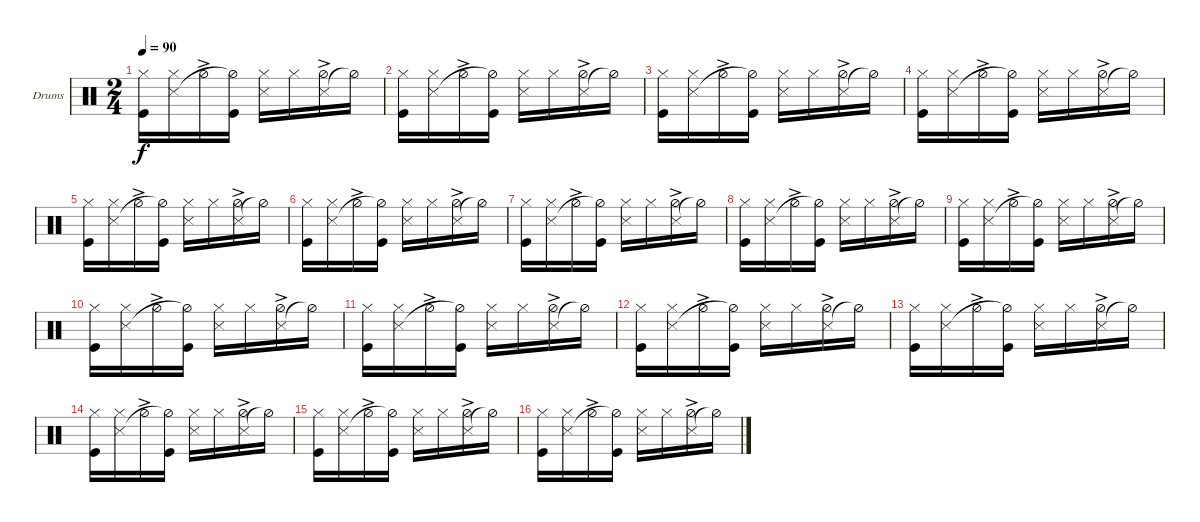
\defaultSystemsLayout 4
\bracketExtendMode groupsimilarinstruments
\firstSystemTrackNameOrientation horizontal
\otherSystemsTrackNameOrientation horizontal
\track ("Bateria" "Drums") {instrument percussion}
\staff {score}
\articulation defaults
\ts (2 4)
\tempo 90
\clef neutral
\scale
0.973518
\ks aminor
("Hi-Hat (closed)" "Kick (hit)").16{dy f} ("Hi-Hat (closed)" "Snare (side stick) 3").16 "Hi-Hat (half)"{ac}.16 ("Kick (hit)" "Hi-Hat (half)"{t}).16 ("Hi-Hat (closed)" "Snare (side stick) 3").16 "Hi-Hat (closed)".16 ("Snare (side stick) 3" "Hi-Hat (half)"{ac}).16 "Hi-Hat (half)"{t}.16 |
\scale
0.973518 ("Hi-Hat (closed)" "Kick (hit)").16 ("Hi-Hat (closed)" "Snare (side stick) 3").16 "Hi-Hat (half)"{ac}.16 ("Kick (hit)" "Hi-Hat (half)"{t}).16 ("Hi-Hat (closed)" "Snare (side stick) 3").16 "Hi-Hat (closed)".16 ("Snare (side stick) 3" "Hi-Hat (half)"{ac}).16 "Hi-Hat (half)"{t}.16 |
\scale
1.10593 ("Hi-Hat (closed)" "Kick (hit)").16 ("Hi-Hat (closed)" "Snare (side stick) 3").16 "Hi-Hat (half)"{ac}.16 ("Kick (hit)" "Hi-Hat (half)"{t}).16 ("Hi-Hat (closed)" "Snare (side stick) 3").16 "Hi-Hat (closed)".16 ("Snare (side stick) 3" "Hi-Hat (half)"{ac}).16 "Hi-Hat (half)"{t}.16 |
\scale
0.973518 ("Hi-Hat (closed)" "Kick (hit)").16 ("Hi-Hat (closed)" "Snare (side stick) 3").16 "Hi-Hat (half)"{ac}.16 ("Kick (hit)" "Hi-Hat (half)"{t}).16 ("Hi-Hat (closed)" "Snare (side stick) 3").16 "Hi-Hat (closed)".16 ("Snare (side stick) 3" "Hi-Hat (half)"{ac}).16 "Hi-Hat (half)"{t}.16 |
\scale
0.973518 ("Hi-Hat (closed)" "Kick (hit)").16 ("Hi-Hat (closed)" "Snare (side stick) 3").16 "Hi-Hat (half)"{ac}.16 ("Kick (hit)" "Hi-Hat (half)"{t}).16 ("Hi-Hat (closed)" "Snare (side stick) 3").16 "Hi-Hat (closed)".16 ("Snare (side stick) 3" "Hi-Hat (half)"{ac}).16 "Hi-Hat (half)"{t}.16 |
\scale
0.973518 ("Hi-Hat (closed)" "Kick (hit)").16 ("Hi-Hat (closed)" "Snare (side stick) 3").16 "Hi-Hat (half)"{ac}.16 ("Kick (hit)" "Hi-Hat (half)"{t}).16 ("Hi-Hat (closed)" "Snare (side stick) 3").16 "Hi-Hat (closed)".16 ("Snare (side stick) 3" "Hi-Hat (half)"{ac}).16 "Hi-Hat (half)"{t}.16 |
\scale
0.973518 ("Hi-Hat (closed)" "Kick (hit)").16 ("Hi-Hat (closed)" "Snare (side stick) 3").16 "Hi-Hat (half)"{ac}.16 ("Kick (hit)" "Hi-Hat (half)"{t}).16 ("Hi-Hat (closed)" "Snare (side stick) 3").16 "Hi-Hat (closed)".16 ("Snare (side stick) 3" "Hi-Hat (half)"{ac}).16 "Hi-Hat (half)"{t}.16 |
\scale
1.10593 ("Hi-Hat (closed)" "Kick (hit)").16 ("Hi-Hat (closed)" "Snare (side stick) 3").16 "Hi-Hat (half)"{ac}.16 ("Kick (hit)" "Hi-Hat (half)"{t}).16 ("Hi-Hat (closed)" "Snare (side stick) 3").16 "Hi-Hat (closed)".16 ("Snare (side stick) 3" "Hi-Hat (half)"{ac}).16 "Hi-Hat (half)"{t}.16 |
\scale
0.973518 ("Hi-Hat (closed)" "Kick (hit)").16 ("Hi-Hat (closed)" "Snare (side stick) 3").16 "Hi-Hat (half)"{ac}.16 ("Kick (hit)" "Hi-Hat (half)"{t}).16 ("Hi-Hat (closed)" "Snare (side stick) 3").16 "Hi-Hat (closed)".16 ("Snare (side stick) 3" "Hi-Hat (half)"{ac}).16 "Hi-Hat (half)"{t}.16 |
\scale
0.973518 ("Hi-Hat (closed)" "Kick (hit)").16 ("Hi-Hat (closed)" "Snare (side stick) 3").16 "Hi-Hat (half)"{ac}.16 ("Kick (hit)" "Hi-Hat (half)"{t}).16 ("Hi-Hat (closed)" "Snare (side stick) 3").16 "Hi-Hat (closed)".16 ("Snare (side stick) 3" "Hi-Hat (half)"{ac}).16 "Hi-Hat (half)"{t}.16 |
\scale
0.973518 ("Hi-Hat (closed)" "Kick (hit)").16 ("Hi-Hat (closed)" "Snare (side stick) 3").16 "Hi-Hat (half)"{ac}.16 ("Kick (hit)" "Hi-Hat (half)"{t}).16 ("Hi-Hat (closed)" "Snare (side stick) 3").16 "Hi-Hat (closed)".16 ("Snare (side stick) 3" "Hi-Hat (half)"{ac}).16 "Hi-Hat (half)"{t}.16 |
\scale
0.973518 ("Hi-Hat (closed)" "Kick (hit)").16 ("Hi-Hat (closed)" "Snare (side stick) 3").16 "Hi-Hat (half)"{ac}.16 ("Kick (hit)" "Hi-Hat (half)"{t}).16 ("Hi-Hat (closed)" "Snare (side stick) 3").16 "Hi-Hat (closed)".16 ("Snare (side stick) 3" "Hi-Hat (half)"{ac}).16 "Hi-Hat (half)"{t}.16 |
\scale
1.10593 ("Hi-Hat (closed)" "Kick (hit)").16 ("Hi-Hat (closed)" "Snare (side stick) 3").16 "Hi-Hat (half)"{ac}.16 ("Kick (hit)" "Hi-Hat (half)"{t}).16 ("Hi-Hat (closed)" "Snare (side stick) 3").16 "Hi-Hat (closed)".16 ("Snare (side stick) 3" "Hi-Hat (half)"{ac}).16 "Hi-Hat (half)"{t}.16 |
\scale
0.973518 ("Hi-Hat (closed)" "Kick (hit)").16 ("Hi-Hat (closed)" "Snare (side stick) 3").16 "Hi-Hat (half)"{ac}.16 ("Kick (hit)" "Hi-Hat (half)"{t}).16 ("Hi-Hat (closed)" "Snare (side stick) 3").16 "Hi-Hat (closed)".16 ("Snare (side stick) 3" "Hi-Hat (half)"{ac}).16 "Hi-Hat (half)"{t}.16 |
\scale
0.973518 ("Hi-Hat (closed)" "Kick (hit)").16 ("Hi-Hat (closed)" "Snare (side stick) 3").16 "Hi-Hat (half)"{ac}.16 ("Kick (hit)" "Hi-Hat (half)"{t}).16 ("Hi-Hat (closed)" "Snare (side stick) 3").16 "Hi-Hat (closed)".16 ("Snare (side stick) 3" "Hi-Hat (half)"{ac}).16 "Hi-Hat (half)"{t}.16 |
\scale
0.973518 ("Hi-Hat (closed)" "Kick (hit)").16 ("Hi-Hat (closed)" "Snare (side stick) 3").16 "Hi-Hat (half)"{ac}.16 ("Kick (hit)" "Hi-Hat (half)"{t}).16 ("Hi-Hat (closed)" "Snare (side stick) 3").16 "Hi-Hat (closed)".16 ("Snare (side stick) 3" "Hi-Hat (half)"{ac}).16 "Hi-Hat (half)"{t}.16
